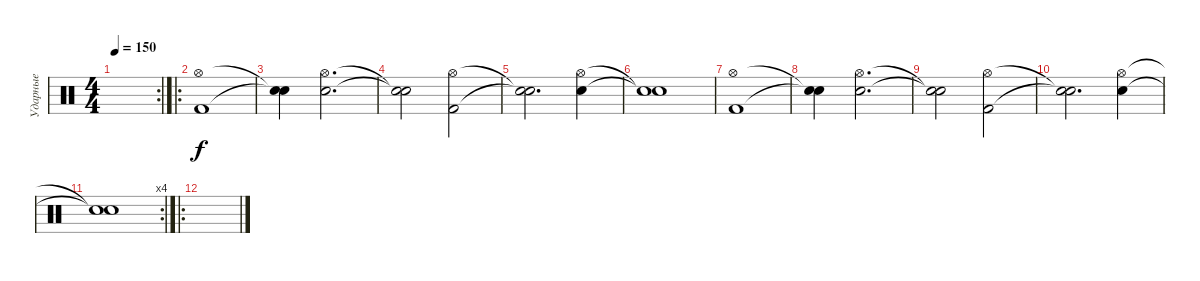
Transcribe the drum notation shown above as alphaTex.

\track ("Ударные" "Ударные") {instrument percussion}
\staff {score}
\articulation defaults
\rc 2
\ts (4 4)
\tempo 150
\clef neutral
\ks c
|
\ro
("Kick (hit) 2" "Hi-Hat (open)").1 |
("Snare (hit)"{t} "Snare (hit)"{t}).4 ("Electric Snare (hit)" "Hi-Hat (open)").2{d} |
("Snare (hit)"{t} "Snare (hit)"{t}).2 ("Kick (hit) 2" "Hi-Hat (open)").2 |
("Snare (hit)"{t} "Snare (hit)"{t}).2{d} ("Electric Snare (hit)" "Hi-Hat (open)").4 |
("Snare (hit)"{t} "Snare (hit)"{t}).1 |
("Kick (hit) 2" "Hi-Hat (open)").1 |
("Snare (hit)"{t} "Snare (hit)"{t}).4 ("Electric Snare (hit)" "Hi-Hat (open)").2{d} |
("Snare (hit)"{t} "Snare (hit)"{t}).2 ("Kick (hit) 2" "Hi-Hat (open)").2 |
("Snare (hit)"{t} "Snare (hit)"{t}).2{d} ("Electric Snare (hit)" "Hi-Hat (open)").4 |
\rc 4
("Snare (hit)"{t} "Snare (hit)"{t}).1 |
\ro
